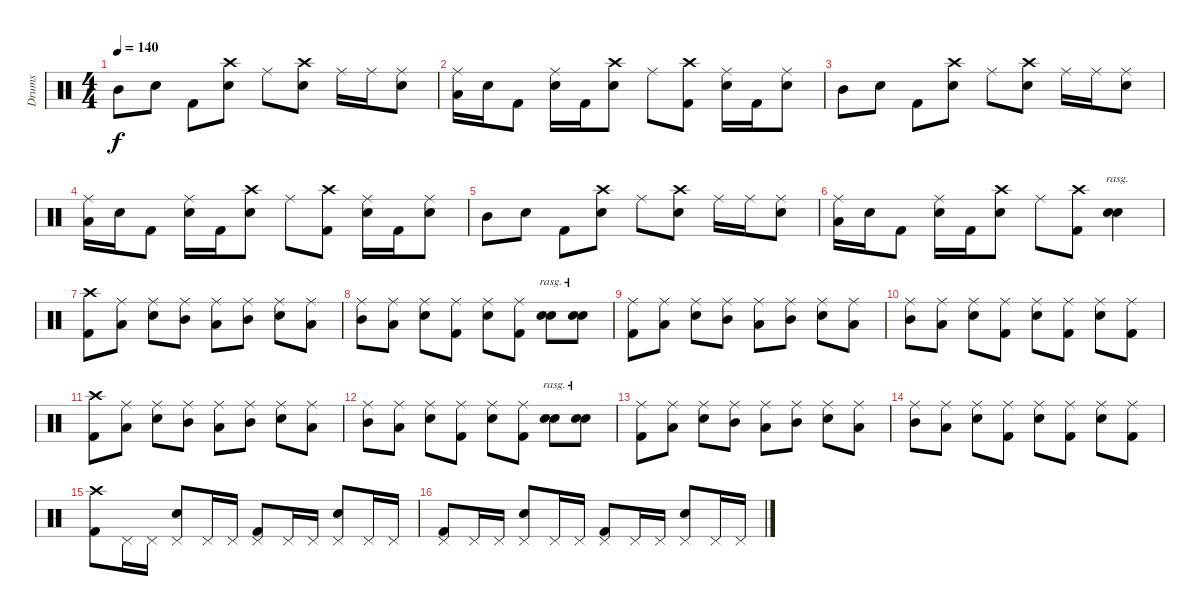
\track ("Drums" "Drums") {instrument percussion}
\staff {score}
\articulation defaults
\ts (4 4)
\tempo 140
\clef neutral
\ks c "Mid Tom (hit)".8{dy f} "Snare (hit) 2".8 "Kick (hit) 2".8
("Crash high (hit)" "Snare (hit) 2").8 "Ride (middle)".8 ("Crash high (hit)" "Snare (hit) 2").8 "Ride (middle)".16 "Ride (middle)".16 ("Ride (middle)" "Snare (hit) 2").8 |
("Ride (middle)" "Low Floor Tom (hit)").16 "Snare (hit) 2".16 "Kick (hit) 2".8 ("Ride (middle)" "Snare (hit) 2").16 "Kick (hit) 2".16 ("Crash high (hit)" "Snare (hit) 2").8 "Ride (middle)".8 ("Crash high (hit)" "Kick (hit) 2").8 ("Ride (middle)" "Snare (hit) 2").16 "Kick (hit) 2".16 ("Ride (middle)" "Snare (hit) 2").8 |
"Mid Tom (hit)".8 "Snare (hit) 2".8 "Kick (hit) 2".8 ("Crash high (hit)" "Snare (hit) 2").8 "Ride (middle)".8 ("Crash high (hit)" "Snare (hit) 2").8 "Ride (middle)".16 "Ride (middle)".16 ("Ride (middle)" "Snare (hit) 2").8 |
("Ride (middle)" "Low Floor Tom (hit)").16 "Snare (hit) 2".16 "Kick (hit) 2".8 ("Ride (middle)" "Snare (hit) 2").16 "Kick (hit) 2".16 ("Crash high (hit)" "Snare (hit) 2").8 "Ride (middle)".8 ("Crash high (hit)" "Kick (hit) 2").8 ("Ride (middle)" "Snare (hit) 2").16 "Kick (hit) 2".16 ("Ride (middle)" "Snare (hit) 2").8 |
"Mid Tom (hit)".8 "Snare (hit) 2".8 "Kick (hit) 2".8 ("Crash high (hit)" "Snare (hit) 2").8 "Ride (middle)".8 ("Crash high (hit)" "Snare (hit) 2").8 "Ride (middle)".16 "Ride (middle)".16 ("Ride (middle)" "Snare (hit) 2").8 |
("Ride (middle)" "Low Floor Tom (hit)").16 "Snare (hit) 2".16 "Kick (hit) 2".8 ("Ride (middle)" "Snare (hit) 2").16 "Kick (hit) 2".16 ("Crash high (hit)" "Snare (hit) 2").8 "Ride (middle)".8 ("Crash high (hit)" "Kick (hit) 2").8 ("Snare (hit) 2" "Snare (hit) 2").4{bu 240 rasg ii} |
("Crash high (hit)" "Kick (hit) 2").8 ("Ride (middle)" "Low Tom (hit)").8 ("Ride (middle)" "Snare (hit) 2").8 ("Ride (middle)" "Mid Tom (hit)").8 ("Ride (middle)" "Low Tom (hit)").8 ("Ride (middle)" "Mid Tom (hit)").8 ("Ride (middle)" "Snare (hit) 2").8 ("Ride (middle)" "Low Tom (hit)").8 |
("Ride (middle)" "Mid Tom (hit)").8 ("Ride (middle)" "Low Tom (hit)").8 ("Ride (middle)" "Snare (hit) 2").8 ("Ride (middle)" "Kick (hit) 2").8 ("Ride (middle)" "Snare (hit) 2").8 ("Ride (middle)" "Kick (hit) 2").8 ("Snare (hit) 2" "Snare (hit) 2").8{bu 120 rasg ii} ("Snare (hit) 2" "Snare (hit) 2").8{bu 120 rasg ii} |
("Ride (middle)" "Kick (hit) 2").8 ("Ride (middle)" "Low Tom (hit)").8 ("Ride (middle)" "Snare (hit) 2").8 ("Ride (middle)" "Mid Tom (hit)").8 ("Ride (middle)" "Low Tom (hit)").8 ("Ride (middle)" "Mid Tom (hit)").8 ("Ride (middle)" "Snare (hit) 2").8 ("Ride (middle)" "Low Tom (hit)").8 |
("Ride (middle)" "Mid Tom (hit)").8 ("Ride (middle)" "Low Tom (hit)").8 ("Ride (middle)" "Snare (hit) 2").8 ("Ride (middle)" "Kick (hit) 2").8 ("Ride (middle)" "Snare (hit) 2").8 ("Ride (middle)" "Kick (hit) 2").8 ("Ride (middle)" "Snare (hit) 2").8 ("Ride (middle)" "Kick (hit) 2").8 |
("Crash high (hit)" "Kick (hit) 2").8 ("Ride (middle)" "Low Tom (hit)").8 ("Ride (middle)" "Snare (hit) 2").8 ("Ride (middle)" "Mid Tom (hit)").8 ("Ride (middle)" "Low Tom (hit)").8 ("Ride (middle)" "Mid Tom (hit)").8 ("Ride (middle)" "Snare (hit) 2").8 ("Ride (middle)" "Low Tom (hit)").8 |
("Ride (middle)" "Mid Tom (hit)").8 ("Ride (middle)" "Low Tom (hit)").8 ("Ride (middle)" "Snare (hit) 2").8 ("Ride (middle)" "Kick (hit) 2").8 ("Ride (middle)" "Snare (hit) 2").8 ("Ride (middle)" "Kick (hit) 2").8 ("Snare (hit) 2" "Snare (hit) 2").8{bu 120 rasg ii} ("Snare (hit) 2" "Snare (hit) 2").8{bu 120 rasg ii} |
("Ride (middle)" "Kick (hit) 2").8 ("Ride (middle)" "Low Tom (hit)").8 ("Ride (middle)" "Snare (hit) 2").8 ("Ride (middle)" "Mid Tom (hit)").8 ("Ride (middle)" "Low Tom (hit)").8 ("Ride (middle)" "Mid Tom (hit)").8 ("Ride (middle)" "Snare (hit) 2").8 ("Ride (middle)" "Low Tom (hit)").8 |
("Ride (middle)" "Mid Tom (hit)").8 ("Ride (middle)" "Low Tom (hit)").8 ("Ride (middle)" "Snare (hit) 2").8 ("Ride (middle)" "Kick (hit) 2").8 ("Ride (middle)" "Snare (hit) 2").8 ("Ride (middle)" "Kick (hit) 2").8 ("Ride (middle)" "Snare (hit) 2").8 ("Ride (middle)" "Kick (hit) 2").8 |
("Crash high (hit)" "Kick (hit) 2").8 "Pedal Hi-Hat (hit)".16 "Pedal Hi-Hat (hit)".16 ("Pedal Hi-Hat (hit)" "Snare (hit) 2").8 "Pedal Hi-Hat (hit)".16 "Pedal Hi-Hat (hit)".16 ("Pedal Hi-Hat (hit)" "Kick (hit) 2").8 "Pedal Hi-Hat (hit)".16 "Pedal Hi-Hat (hit)".16 ("Pedal Hi-Hat (hit)" "Snare (hit) 2").8 "Pedal Hi-Hat (hit)".16 "Pedal Hi-Hat (hit)".16 |
("Pedal Hi-Hat (hit)" "Kick (hit) 2").8 "Pedal Hi-Hat (hit)".16 "Pedal Hi-Hat (hit)".16 ("Pedal Hi-Hat (hit)" "Snare (hit) 2").8 "Pedal Hi-Hat (hit)".16 "Pedal Hi-Hat (hit)".16 ("Pedal Hi-Hat (hit)" "Kick (hit) 2").8 "Pedal Hi-Hat (hit)".16 "Pedal Hi-Hat (hit)".16 ("Pedal Hi-Hat (hit)" "Snare (hit) 2").8 "Pedal Hi-Hat (hit)".16 "Pedal Hi-Hat (hit)".16
